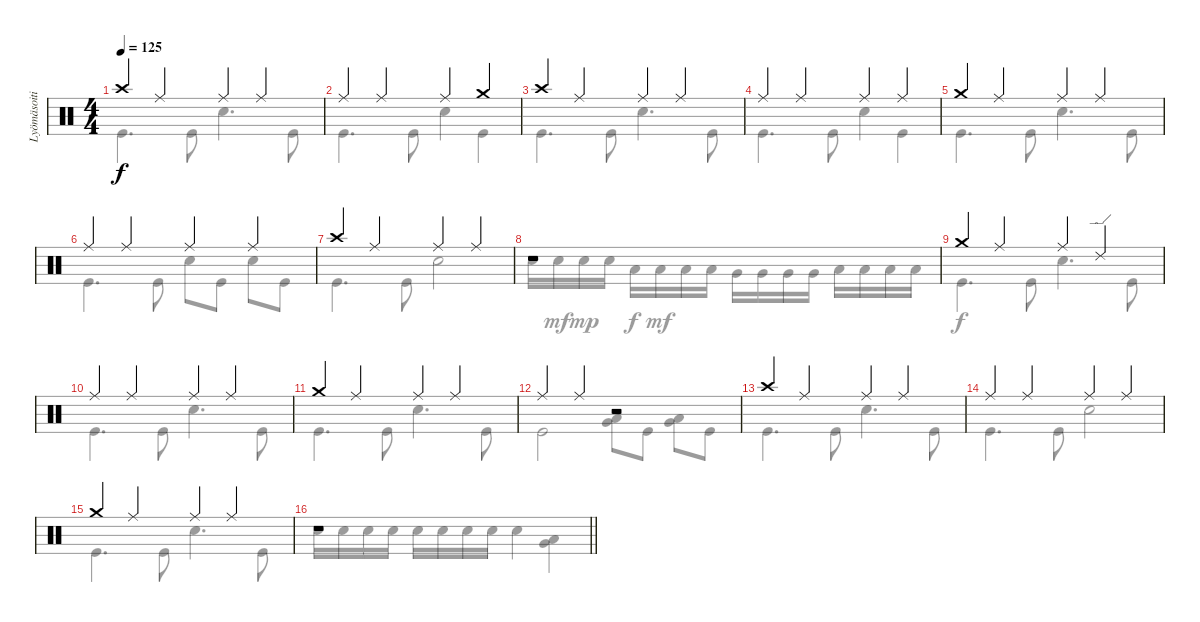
\track ("Lyömäsoitin" "Lyömäsoiti") {instrument percussion}
\staff {score}
\articulation defaults
\voice
\ts (4 4)
\tempo 125
\clef neutral
\ks c "Crash high (hit)".4{dy f} "Ride (middle)".4 "Ride (middle)".4 "Ride (middle)".4
|
"Ride (middle)".4 "Ride (middle)".4 "Ride (middle)".4 "Crash medium (hit)".4 |
"Crash high (hit)".4 "Ride (middle)".4 "Ride (middle)".4 "Ride (middle)".4 |
"Ride (middle)".4 "Ride (middle)".4 "Ride (middle)".4 "Ride (middle)".4 |
"Crash medium (hit)".4 "Ride (middle)".4 "Ride (middle)".4 "Ride (middle)".4 |
"Ride (middle)".4 "Ride (middle)".4 "Ride (middle)".4 "Ride (middle)".4 |
"Crash high (hit)".4 "Ride (middle)".4 "Ride (middle)".4 "Ride (middle)".4 |
r.1 |
"Crash medium (hit)".4 "Ride (middle)".4 "Ride (middle)".4 "Ride (edge) 2".4 |
"Ride (middle)".4 "Ride (middle)".4 "Ride (middle)".4 "Ride (middle)".4 |
"Crash medium (hit)".4 "Ride (middle)".4 "Ride (middle)".4 "Ride (middle)".4 |
"Ride (middle)".4 "Ride (middle)".4 r.2 |
"Crash high (hit)".4 "Ride (middle)".4 "Ride (middle)".4 "Ride (middle)".4 |
"Ride (middle)".4 "Ride (middle)".4 "Ride (middle)".4 "Ride (middle)".4 |
"Crash medium (hit)".4 "Ride (middle)".4 "Ride (middle)".4 "Ride (middle)".4 |
\barLineRight lightlight
r.1
\voice
\clef neutral
\ottava regular
\simile none
\ks c "Kick (hit)".4{d dy f} "Kick (hit)".8 "Snare (hit) 2".4{d} "Kick (hit)".8
|
"Kick (hit)".4{d} "Kick (hit)".8 "Snare (hit) 2".4 "Kick (hit)".4 |
"Kick (hit)".4{d} "Kick (hit)".8 "Snare (hit) 2".4{d} "Kick (hit)".8 |
"Kick (hit)".4{d} "Kick (hit)".8 "Snare (hit) 2".4 "Kick (hit)".4 |
"Kick (hit)".4{d} "Kick (hit)".8 "Snare (hit) 2".4{d} "Kick (hit)".8 |
"Kick (hit)".4{d} "Kick (hit)".8 "Snare (hit) 2".8 "Kick (hit)".8 "Snare (hit) 2".8 "Kick (hit)".8 |
"Kick (hit)".4{d} "Kick (hit)".8 "Snare (hit) 2".2 |
"Snare (hit) 2".16 "Snare (hit) 2".16{dy mf} "Snare (hit) 2".16{dy mp} "Snare (hit) 2".16 "Low Tom (hit)".16{dy f} "Low Tom (hit)".16{dy mf} "Low Tom (hit)".16 "Low Tom (hit)".16 "Very Low Tom (hit)".16 "Very Low Tom (hit)".16 "Very Low Tom (hit)".16 "Very Low Tom (hit)".16 "Low Floor Tom (hit)".16 "Low Floor Tom (hit)".16 "Low Floor Tom (hit)".16 "Low Floor Tom (hit)".16 |
"Kick (hit)".4{d dy f} "Kick (hit)".8 "Snare (hit) 2".4{d} "Kick (hit)".8 |
"Kick (hit)".4{d} "Kick (hit)".8 "Snare (hit) 2".4{d} "Kick (hit)".8 |
"Kick (hit)".4{d} "Kick (hit)".8 "Snare (hit) 2".4{d} "Kick (hit)".8 |
"Kick (hit)".2 ("Low Tom (hit)" "Very Low Tom (hit)").8 "Kick (hit)".8 ("Very Low Tom (hit)" "Low Floor Tom (hit)").8 "Kick (hit)".8 |
"Kick (hit)".4{d} "Kick (hit)".8 "Snare (hit) 2".4{d} "Kick (hit)".8 |
"Kick (hit)".4{d} "Kick (hit)".8 "Snare (hit) 2".2 |
"Kick (hit)".4{d} "Kick (hit)".8 "Snare (hit) 2".4{d} "Kick (hit)".8 |
\barLineRight lightlight "Snare (hit) 2".16 "Snare (hit) 2".16 "Snare (hit) 2".16 "Snare (hit) 2".16 "Snare (hit) 2".16 "Snare (hit) 2".16 "Snare (hit) 2".16 "Snare (hit) 2".16 "Snare (hit) 2".4
("Low Tom (hit)" "Very Low Tom (hit)").4{bu 120}
